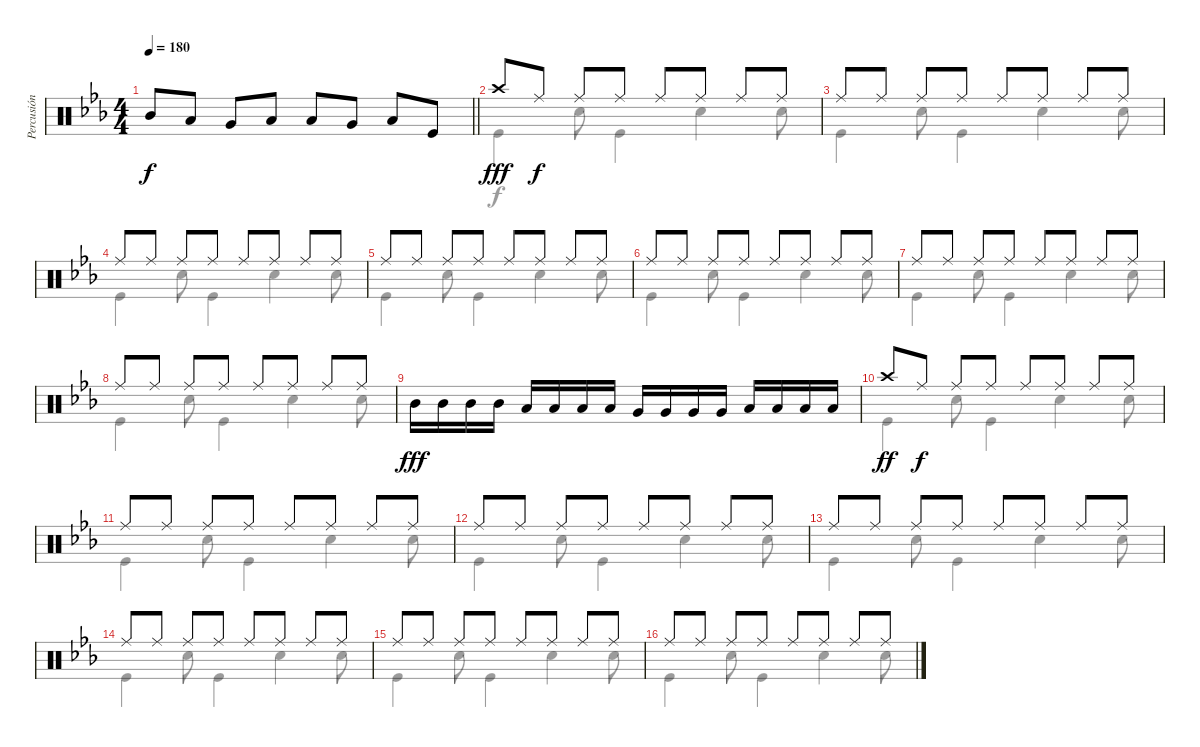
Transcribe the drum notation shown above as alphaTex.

\track ("Percusión" "Percusión") {instrument percussion}
\staff {score}
\articulation defaults
\voice
\ts (4 4)
\tempo 180
\clef neutral
\barLineRight lightlight
\ks eb "Mid Tom (hit)".8{dy f} "Low Tom (hit)".8 "Very Low Tom (hit)".8 "Low Floor Tom (hit)".8 "Low Tom (hit)".8 "Very Low Tom (hit)".8 "Low Floor Tom (hit)".8 "Kick (hit)".8
|
"Crash high (hit)".8{dy fff} "Ride (middle)".8{dy f} "Ride (middle)".8 "Ride (middle)".8 "Ride (middle)".8 "Ride (middle)".8 "Ride (middle)".8 "Ride (middle)".8 |
"Ride (middle)".8 "Ride (middle)".8 "Ride (middle)".8 "Ride (middle)".8 "Ride (middle)".8 "Ride (middle)".8 "Ride (middle)".8 "Ride (middle)".8 |
"Ride (middle)".8 "Ride (middle)".8 "Ride (middle)".8 "Ride (middle)".8 "Ride (middle)".8 "Ride (middle)".8 "Ride (middle)".8 "Ride (middle)".8 |
"Ride (middle)".8 "Ride (middle)".8 "Ride (middle)".8 "Ride (middle)".8 "Ride (middle)".8 "Ride (middle)".8 "Ride (middle)".8 "Ride (middle)".8 |
"Ride (middle)".8 "Ride (middle)".8 "Ride (middle)".8 "Ride (middle)".8 "Ride (middle)".8 "Ride (middle)".8 "Ride (middle)".8 "Ride (middle)".8 |
"Ride (middle)".8 "Ride (middle)".8 "Ride (middle)".8 "Ride (middle)".8 "Ride (middle)".8 "Ride (middle)".8 "Ride (middle)".8 "Ride (middle)".8 |
"Ride (middle)".8 "Ride (middle)".8 "Ride (middle)".8 "Ride (middle)".8 "Ride (middle)".8 "Ride (middle)".8 "Ride (middle)".8 "Ride (middle)".8 |
"Mid Tom (hit)".16{dy fff} "Mid Tom (hit)".16 "Mid Tom (hit)".16 "Mid Tom (hit)".16 "Low Tom (hit)".16 "Low Tom (hit)".16 "Low Tom (hit)".16 "Low Tom (hit)".16 "Very Low Tom (hit)".16 "Very Low Tom (hit)".16 "Very Low Tom (hit)".16 "Very Low Tom (hit)".16 "Low Floor Tom (hit)".16 "Low Floor Tom (hit)".16 "Low Floor Tom (hit)".16 "Low Floor Tom (hit)".16 |
"Crash high (hit)".8{dy ff} "Ride (middle)".8{dy f} "Ride (middle)".8 "Ride (middle)".8 "Ride (middle)".8 "Ride (middle)".8 "Ride (middle)".8 "Ride (middle)".8 |
"Ride (middle)".8 "Ride (middle)".8 "Ride (middle)".8 "Ride (middle)".8 "Ride (middle)".8 "Ride (middle)".8 "Ride (middle)".8 "Ride (middle)".8 |
"Ride (middle)".8 "Ride (middle)".8 "Ride (middle)".8 "Ride (middle)".8 "Ride (middle)".8 "Ride (middle)".8 "Ride (middle)".8 "Ride (middle)".8 |
"Ride (middle)".8 "Ride (middle)".8 "Ride (middle)".8 "Ride (middle)".8 "Ride (middle)".8 "Ride (middle)".8 "Ride (middle)".8 "Ride (middle)".8 |
"Ride (middle)".8 "Ride (middle)".8 "Ride (middle)".8 "Ride (middle)".8 "Ride (middle)".8 "Ride (middle)".8 "Ride (middle)".8 "Ride (middle)".8 |
"Ride (middle)".8 "Ride (middle)".8 "Ride (middle)".8 "Ride (middle)".8 "Ride (middle)".8 "Ride (middle)".8 "Ride (middle)".8 "Ride (middle)".8 |
"Ride (middle)".8 "Ride (middle)".8 "Ride (middle)".8 "Ride (middle)".8 "Ride (middle)".8 "Ride (middle)".8 "Ride (middle)".8 "Ride (middle)".8
\voice
\clef neutral
\ottava regular
\simile none
\barLineRight lightlight
\ks eb
|
"Kick (hit)".4 "Snare (hit) 2".8 "Kick (hit)".4 "Snare (hit) 2".4 "Snare (hit) 2".8 |
"Kick (hit)".4 "Snare (hit) 2".8 "Kick (hit)".4 "Snare (hit) 2".4 "Snare (hit) 2".8 |
"Kick (hit)".4 "Snare (hit) 2".8 "Kick (hit)".4 "Snare (hit) 2".4 "Snare (hit) 2".8 |
"Kick (hit)".4 "Snare (hit) 2".8 "Kick (hit)".4 "Snare (hit) 2".4 "Snare (hit) 2".8 |
"Kick (hit)".4 "Snare (hit) 2".8 "Kick (hit)".4 "Snare (hit) 2".4 "Snare (hit) 2".8 |
"Kick (hit)".4 "Snare (hit) 2".8 "Kick (hit)".4 "Snare (hit) 2".4 "Snare (hit) 2".8 |
"Kick (hit)".4 "Snare (hit) 2".8 "Kick (hit)".4 "Snare (hit) 2".4 "Snare (hit) 2".8 |
|
"Kick (hit)".4 "Snare (hit) 2".8 "Kick (hit)".4 "Snare (hit) 2".4 "Snare (hit) 2".8 |
"Kick (hit)".4 "Snare (hit) 2".8 "Kick (hit)".4 "Snare (hit) 2".4 "Snare (hit) 2".8 |
"Kick (hit)".4 "Snare (hit) 2".8 "Kick (hit)".4 "Snare (hit) 2".4 "Snare (hit) 2".8 |
"Kick (hit)".4 "Snare (hit) 2".8 "Kick (hit)".4 "Snare (hit) 2".4 "Snare (hit) 2".8 |
"Kick (hit)".4 "Snare (hit) 2".8 "Kick (hit)".4 "Snare (hit) 2".4 "Snare (hit) 2".8 |
"Kick (hit)".4 "Snare (hit) 2".8 "Kick (hit)".4 "Snare (hit) 2".4 "Snare (hit) 2".8 |
"Kick (hit)".4 "Snare (hit) 2".8 "Kick (hit)".4 "Snare (hit) 2".4 "Snare (hit) 2".8
